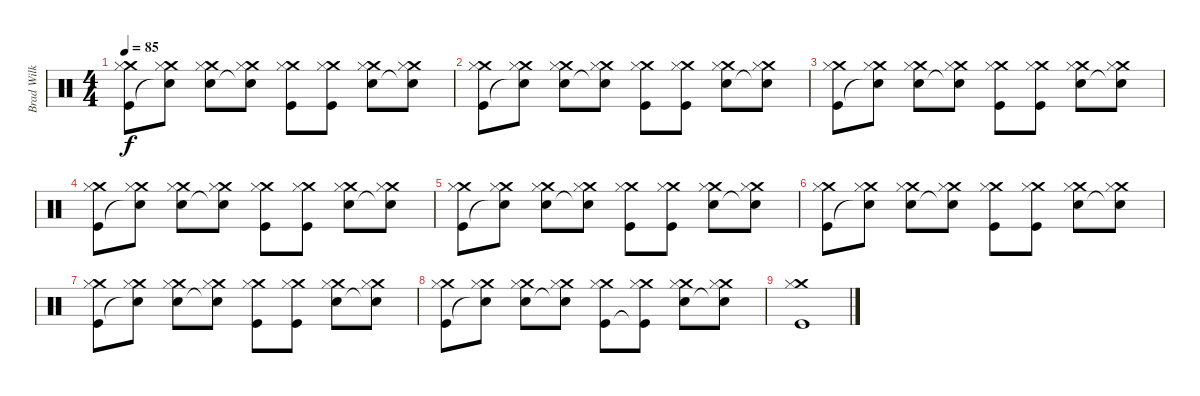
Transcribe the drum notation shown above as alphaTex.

\track ("Brad Wilk" "Brad Wilk") {instrument percussion}
\staff {score}
\articulation defaults
\ts (4 4)
\tempo 85
\clef neutral
\ks c
("Crash medium (hit)" "Hi-Hat (closed)" "Kick (hit)").8{dy f} ("Crash medium (hit)" "Hi-Hat (closed)" "Snare (hit)"{t}).8 ("Crash medium (hit)" "Hi-Hat (closed)" "Snare (hit) 2").8 ("Crash medium (hit)" "Hi-Hat (closed)" "Snare (hit)"{t}).8 ("Crash medium (hit)" "Hi-Hat (closed)" "Kick (hit)").8 ("Crash medium (hit)" "Hi-Hat (closed)" "Kick (hit)").8 ("Crash medium (hit)" "Hi-Hat (closed)" "Snare (hit) 2").8 ("Crash medium (hit)" "Hi-Hat (closed)" "Snare (hit)"{t}).8 |
("Crash medium (hit)" "Hi-Hat (closed)" "Kick (hit)").8 ("Crash medium (hit)" "Hi-Hat (closed)" "Snare (hit)"{t}).8 ("Crash medium (hit)" "Hi-Hat (closed)" "Snare (hit) 2").8 ("Crash medium (hit)" "Hi-Hat (closed)" "Snare (hit)"{t}).8 ("Crash medium (hit)" "Hi-Hat (closed)" "Kick (hit)").8 ("Crash medium (hit)" "Hi-Hat (closed)" "Kick (hit)").8 ("Crash medium (hit)" "Hi-Hat (closed)" "Snare (hit) 2").8 ("Crash medium (hit)" "Hi-Hat (closed)" "Snare (hit)"{t}).8 |
("Crash medium (hit)" "Hi-Hat (closed)" "Kick (hit)").8 ("Crash medium (hit)" "Hi-Hat (closed)" "Snare (hit)"{t}).8 ("Crash medium (hit)" "Hi-Hat (closed)" "Snare (hit) 2").8 ("Crash medium (hit)" "Hi-Hat (closed)" "Snare (hit)"{t}).8 ("Crash medium (hit)" "Hi-Hat (closed)" "Kick (hit)").8 ("Crash medium (hit)" "Hi-Hat (closed)" "Kick (hit)").8 ("Crash medium (hit)" "Hi-Hat (closed)" "Snare (hit) 2").8 ("Crash medium (hit)" "Hi-Hat (closed)" "Snare (hit)"{t}).8 |
("Crash medium (hit)" "Hi-Hat (closed)" "Kick (hit)").8 ("Crash medium (hit)" "Hi-Hat (closed)" "Snare (hit)"{t}).8 ("Crash medium (hit)" "Hi-Hat (closed)" "Snare (hit) 2").8 ("Crash medium (hit)" "Hi-Hat (closed)" "Snare (hit)"{t}).8 ("Crash medium (hit)" "Hi-Hat (closed)" "Kick (hit)").8 ("Crash medium (hit)" "Hi-Hat (closed)" "Kick (hit)").8 ("Crash medium (hit)" "Hi-Hat (closed)" "Snare (hit) 2").8 ("Crash medium (hit)" "Hi-Hat (closed)" "Snare (hit)"{t}).8 |
("Crash medium (hit)" "Hi-Hat (closed)" "Kick (hit)").8 ("Crash medium (hit)" "Hi-Hat (closed)" "Snare (hit)"{t}).8 ("Crash medium (hit)" "Hi-Hat (closed)" "Snare (hit) 2").8 ("Crash medium (hit)" "Hi-Hat (closed)" "Snare (hit)"{t}).8 ("Crash medium (hit)" "Hi-Hat (closed)" "Kick (hit)").8 ("Crash medium (hit)" "Hi-Hat (closed)" "Kick (hit)").8 ("Crash medium (hit)" "Hi-Hat (closed)" "Snare (hit) 2").8 ("Crash medium (hit)" "Hi-Hat (closed)" "Snare (hit)"{t}).8 |
("Crash medium (hit)" "Hi-Hat (closed)" "Kick (hit)").8 ("Crash medium (hit)" "Hi-Hat (closed)" "Snare (hit)"{t}).8 ("Crash medium (hit)" "Hi-Hat (closed)" "Snare (hit) 2").8 ("Crash medium (hit)" "Hi-Hat (closed)" "Snare (hit)"{t}).8 ("Crash medium (hit)" "Hi-Hat (closed)" "Kick (hit)").8 ("Crash medium (hit)" "Hi-Hat (closed)" "Kick (hit)").8 ("Crash medium (hit)" "Hi-Hat (closed)" "Snare (hit) 2").8 ("Crash medium (hit)" "Hi-Hat (closed)" "Snare (hit)"{t}).8 |
("Crash medium (hit)" "Hi-Hat (closed)" "Kick (hit)").8 ("Crash medium (hit)" "Hi-Hat (closed)" "Snare (hit)"{t}).8 ("Crash medium (hit)" "Hi-Hat (closed)" "Snare (hit) 2").8 ("Crash medium (hit)" "Hi-Hat (closed)" "Snare (hit)"{t}).8 ("Crash medium (hit)" "Hi-Hat (closed)" "Kick (hit)").8 ("Crash medium (hit)" "Hi-Hat (closed)" "Kick (hit)").8 ("Crash medium (hit)" "Hi-Hat (closed)" "Snare (hit) 2").8 ("Crash medium (hit)" "Hi-Hat (closed)" "Snare (hit)"{t}).8 |
("Crash medium (hit)" "Hi-Hat (closed)" "Kick (hit)").8 ("Crash medium (hit)" "Hi-Hat (closed)" "Snare (hit)"{t}).8 ("Crash medium (hit)" "Hi-Hat (closed)" "Snare (hit) 2").8 ("Crash medium (hit)" "Hi-Hat (closed)" "Snare (hit)"{t}).8 ("Crash medium (hit)" "Hi-Hat (closed)" "Kick (hit)").8 ("Crash medium (hit)" "Hi-Hat (closed)" "Kick (hit)"{t}).8 ("Crash medium (hit)" "Hi-Hat (closed)" "Snare (hit) 2").8 ("Crash medium (hit)" "Hi-Hat (closed)" "Snare (hit)"{t}).8 |
("Crash medium (hit)" "Hi-Hat (closed)" "Kick (hit)").1
